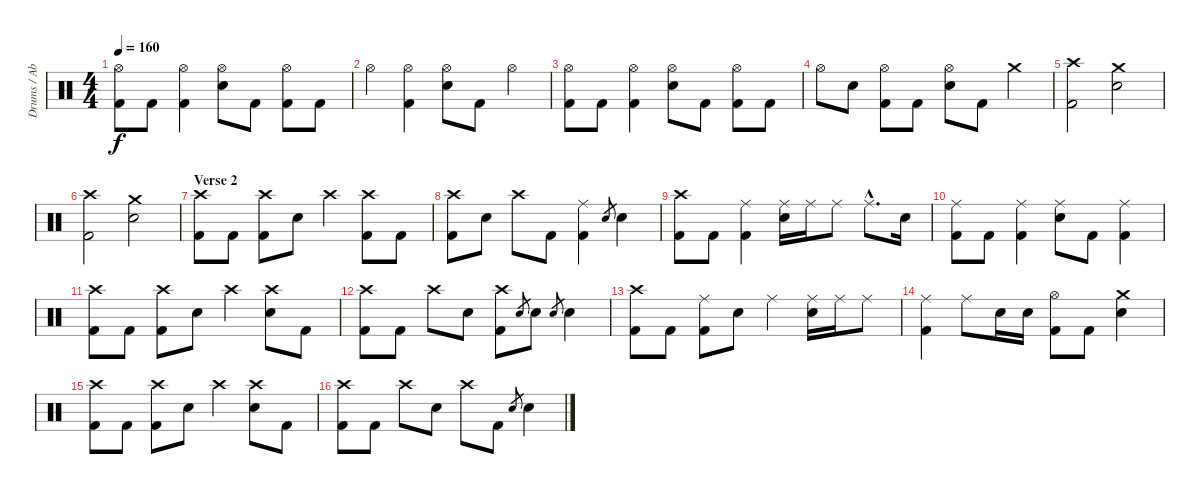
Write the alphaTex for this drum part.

\track ("Drums / Abe Cunningham" "Drums / Ab") {instrument percussion}
\staff {score}
\articulation defaults
\ts (4 4)
\tempo 160
\clef neutral
\ks c
("Hi-Hat (open)" "Kick (hit) 2").8{dy f} "Kick (hit) 2".8 ("Hi-Hat (open)" "Kick (hit) 2").4 ("Hi-Hat (open)" "Electric Snare (hit)").8 "Kick (hit) 2".8 ("Hi-Hat (open)" "Kick (hit) 2").8 "Kick (hit) 2".8 |
"Hi-Hat (open)".4 ("Hi-Hat (open)" "Kick (hit) 2").4 ("Hi-Hat (open)" "Electric Snare (hit)").8 "Kick (hit) 2".8 "Hi-Hat (open)".4 |
("Hi-Hat (open)" "Kick (hit) 2").8 "Kick (hit) 2".8 ("Hi-Hat (open)" "Kick (hit) 2").4 ("Hi-Hat (open)" "Electric Snare (hit)").8 "Kick (hit) 2".8 ("Hi-Hat (open)" "Kick (hit) 2").8 "Kick (hit) 2".8 |
"Hi-Hat (open)".8 "Electric Snare (hit)".8 ("Hi-Hat (open)" "Kick (hit) 2").8 "Kick (hit) 2".8 ("Hi-Hat (open)" "Electric Snare (hit)").8 "Kick (hit) 2".8 "Crash medium (hit)".4 |
("Crash high (hit)" "Kick (hit) 2").2 ("Crash medium (hit)" "Electric Snare (hit)").2 |
("Crash high (hit)" "Kick (hit) 2").2 ("Crash medium (hit)" "Electric Snare (hit)").2 |
\section ("" "Verse 2")
("Crash high (hit)" "Kick (hit) 2").8 "Kick (hit) 2".8 ("Crash high (hit)" "Kick (hit) 2").8 "Electric Snare (hit)".8 "Crash high (hit)".4 ("Crash high (hit)" "Kick (hit) 2").8 "Kick (hit) 2".8 |
("Crash high (hit)" "Kick (hit) 2").8 "Electric Snare (hit)".8 "Crash high (hit)".8 "Kick (hit) 2".8 ("Ride (middle)" "Kick (hit) 2").4 "Electric Snare (hit)".8{gr} "Electric Snare (hit)".4 |
("Crash high (hit)" "Kick (hit) 2").8 "Kick (hit) 2".8 ("Ride (middle)" "Kick (hit) 2").4 ("Ride (middle)" "Electric Snare (hit)").16 "Ride (middle)".16 "Ride (middle)".8 "Ride (middle)"{hac}.8{d} "Electric Snare (hit)".16 |
("Ride (middle)" "Kick (hit) 2").8 "Kick (hit) 2".8 ("Ride (middle)" "Kick (hit) 2").4 ("Ride (middle)" "Electric Snare (hit)").8 "Kick (hit) 2".8 ("Ride (middle)" "Kick (hit) 2").4 |
("Crash high (hit)" "Kick (hit) 2").8 "Kick (hit) 2".8 ("Crash high (hit)" "Kick (hit) 2").8 "Electric Snare (hit)".8 "Crash high (hit)".4 ("Crash high (hit)" "Electric Snare (hit)").8 "Kick (hit) 2".8 |
("Crash high (hit)" "Kick (hit) 2").8 "Kick (hit) 2".8 "Crash high (hit)".8 "Electric Snare (hit)".8 ("Crash high (hit)" "Kick (hit) 2").8 "Electric Snare (hit)".8{gr} "Electric Snare (hit)".8 "Electric Snare (hit)".8{gr} "Electric Snare (hit)".4 |
("Crash high (hit)" "Kick (hit) 2").8 "Kick (hit) 2".8 ("Ride (middle)" "Kick (hit) 2").8 "Electric Snare (hit)".8 "Ride (middle)".4 ("Ride (middle)" "Electric Snare (hit)").16 "Ride (middle)".16 "Ride (middle)".8 |
("Ride (middle)" "Kick (hit) 2").4 "Ride (middle)".8 "Electric Snare (hit)".16 "Electric Snare (hit)".16 ("Hi-Hat (open)" "Kick (hit) 2").8 "Kick (hit) 2".8 ("Crash medium (hit)" "Electric Snare (hit)").4 |
("Crash high (hit)" "Kick (hit) 2").8 "Kick (hit) 2".8 ("Crash high (hit)" "Kick (hit) 2").8 "Electric Snare (hit)".8 "Crash high (hit)".4 ("Crash high (hit)" "Electric Snare (hit)").8 "Kick (hit) 2".8 |
("Crash high (hit)" "Kick (hit) 2").8 "Kick (hit) 2".8 "Crash high (hit)".8 "Electric Snare (hit)".8 "Crash high (hit)".8 "Kick (hit) 2".8 "Electric Snare (hit)".8{gr} "Electric Snare (hit)".4
